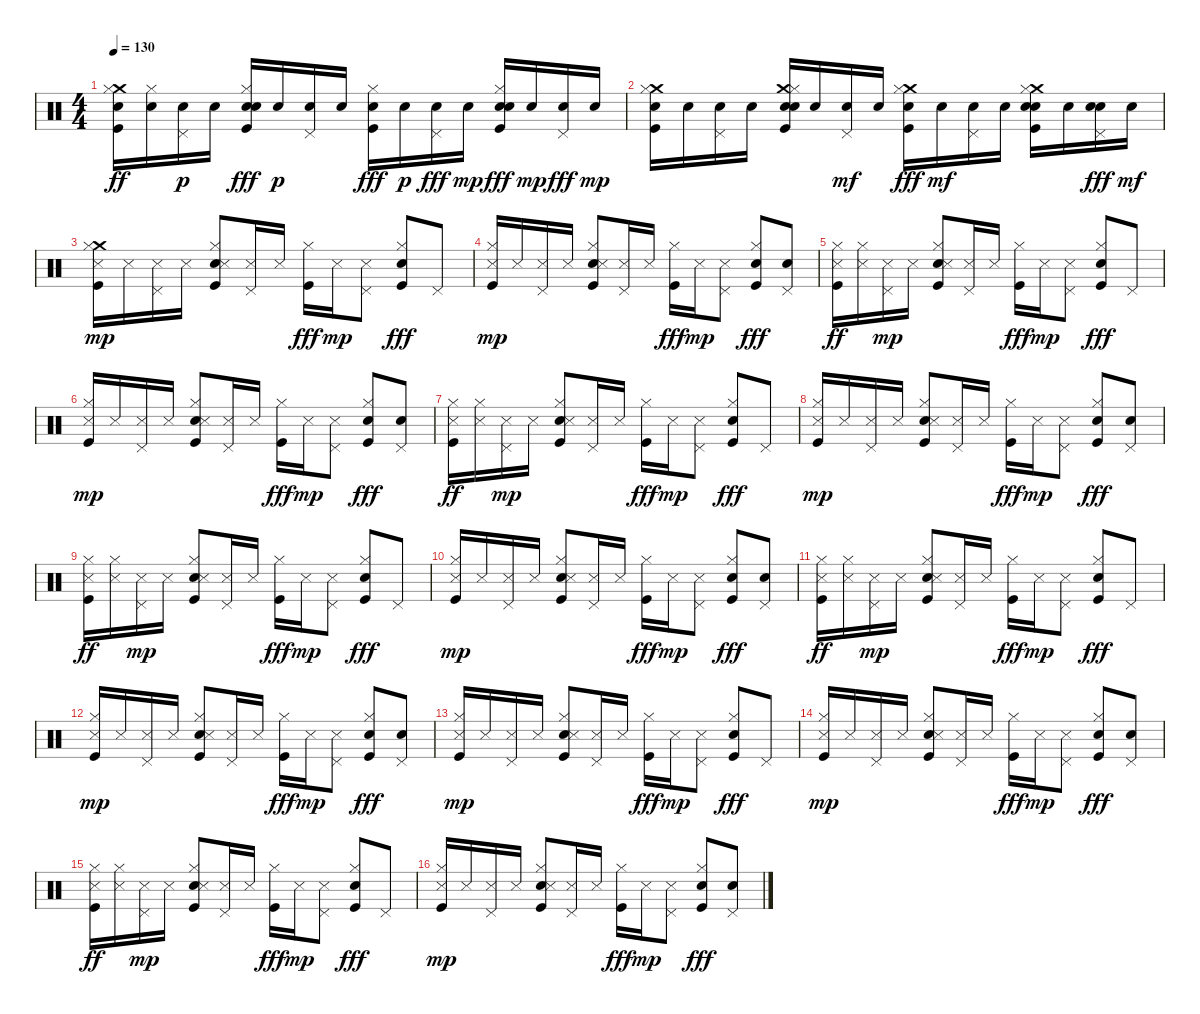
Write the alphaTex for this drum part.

\track "" {instrument percussion}
\staff {score}
\articulation defaults
\ts (4 4)
\tempo 130
\clef neutral
\ks c
("Electric Snare (hit)" "Crash medium (hit)" "Kick (hit)" "Hi-Hat (closed)").16{dy ff} ("Electric Snare (hit)" "Hi-Hat (closed)").16 ("Pedal Hi-Hat (hit)" "Electric Snare (hit)").16{dy p} "Electric Snare (hit)".16 ("Hand Clap (hit)" "Electric Snare (hit)" "Kick (hit)" "Hi-Hat (closed)").16{dy fff} "Electric Snare (hit)".16{dy p} ("Pedal Hi-Hat (hit)" "Electric Snare (hit)").16 "Electric Snare (hit)".16 ("Electric Snare (hit)" "Kick (hit)" "Hi-Hat (closed)").16{dy fff} "Electric Snare (hit)".16{dy p} ("Electric Snare (hit)" "Pedal Hi-Hat (hit)").16{dy fff} "Electric Snare (hit)".16{dy mp} ("Hand Clap (hit)" "Electric Snare (hit)" "Kick (hit)" "Hi-Hat (closed)").16{dy fff} "Electric Snare (hit)".16{dy mp} ("Electric Snare (hit)" "Pedal Hi-Hat (hit)").16{dy fff} "Electric Snare (hit)".16{dy mp} |
("Kick (hit)" "Electric Snare (hit)" "Crash medium (hit)" "Hi-Hat (closed)").16 "Electric Snare (hit)".16 ("Pedal Hi-Hat (hit)" "Electric Snare (hit)").16 "Electric Snare (hit)".16 ("Hand Clap (hit)" "Crash medium (hit)" "Kick (hit)" "Electric Snare (hit)" "Hi-Hat (closed)").16 "Electric Snare (hit)".16 ("Pedal Hi-Hat (hit)" "Electric Snare (hit)").16{dy mf} "Electric Snare (hit)".16 ("Crash medium (hit)" "Electric Snare (hit)" "Kick (hit)" "Hi-Hat (closed)").16{dy fff} "Electric Snare (hit)".16{dy mf} ("Pedal Hi-Hat (hit)" "Electric Snare (hit)").16 "Electric Snare (hit)".16 ("Hand Clap (hit)" "Crash medium (hit)" "Kick (hit)" "Electric Snare (hit)" "Hi-Hat (closed)").16 "Electric Snare (hit)".16 ("Hand Clap (hit)" "Electric Snare (hit)" "Pedal Hi-Hat (hit)").16{dy fff} "Electric Snare (hit)".16{dy mf} |
("Kick (hit)" "Crash medium (hit)" "Snare (side stick) 3" "Hi-Hat (closed)").16{dy mp} "Snare (side stick) 3".16 ("Pedal Hi-Hat (hit)" "Snare (side stick) 3").16 "Snare (side stick) 3".16 ("Hand Clap (hit)" "Kick (hit)" "Snare (side stick) 3" "Hi-Hat (closed)").8 ("Pedal Hi-Hat (hit)" "Snare (side stick) 3").16 "Snare (side stick) 3".16 ("Kick (hit)" "Hi-Hat (closed)").16{dy fff} "Snare (side stick) 3".16{dy mp} ("Pedal Hi-Hat (hit)" "Snare (side stick) 3").8 ("Hand Clap (hit)" "Kick (hit)" "Hi-Hat (closed)").8{dy fff} "Pedal Hi-Hat (hit)".8 |
("Kick (hit)" "Snare (side stick) 3" "Hi-Hat (closed)").16{dy mp} "Snare (side stick) 3".16 ("Pedal Hi-Hat (hit)" "Snare (side stick) 3").16 "Snare (side stick) 3".16 ("Hand Clap (hit)" "Kick (hit)" "Snare (side stick) 3" "Hi-Hat (closed)").8 ("Pedal Hi-Hat (hit)" "Snare (side stick) 3").16 "Snare (side stick) 3".16 ("Kick (hit)" "Hi-Hat (closed)").16{dy fff} "Snare (side stick) 3".16{dy mp} ("Pedal Hi-Hat (hit)" "Snare (side stick) 3").8 ("Hand Clap (hit)" "Kick (hit)" "Hi-Hat (closed)").8{dy fff} ("Hand Clap (hit)" "Pedal Hi-Hat (hit)").8 |
("Kick (hit)" "Snare (side stick) 3" "Hi-Hat (closed)").16{dy ff} ("Snare (side stick) 3" "Hi-Hat (closed)").16 ("Pedal Hi-Hat (hit)" "Snare (side stick) 3").16{dy mp} "Snare (side stick) 3".16 ("Hand Clap (hit)" "Kick (hit)" "Snare (side stick) 3" "Hi-Hat (closed)").8 ("Pedal Hi-Hat (hit)" "Snare (side stick) 3").16 "Snare (side stick) 3".16 ("Kick (hit)" "Hi-Hat (closed)").16{dy fff} "Snare (side stick) 3".16{dy mp} ("Pedal Hi-Hat (hit)" "Snare (side stick) 3").8 ("Hand Clap (hit)" "Kick (hit)" "Hi-Hat (closed)").8{dy fff} "Pedal Hi-Hat (hit)".8 |
("Kick (hit)" "Snare (side stick) 3" "Hi-Hat (closed)").16{dy mp} "Snare (side stick) 3".16 ("Pedal Hi-Hat (hit)" "Snare (side stick) 3").16 "Snare (side stick) 3".16 ("Hand Clap (hit)" "Kick (hit)" "Snare (side stick) 3" "Hi-Hat (closed)").8 ("Pedal Hi-Hat (hit)" "Snare (side stick) 3").16 "Snare (side stick) 3".16 ("Kick (hit)" "Hi-Hat (closed)").16{dy fff} "Snare (side stick) 3".16{dy mp} ("Pedal Hi-Hat (hit)" "Snare (side stick) 3").8 ("Hand Clap (hit)" "Kick (hit)" "Hi-Hat (closed)").8{dy fff} ("Hand Clap (hit)" "Pedal Hi-Hat (hit)").8 |
("Kick (hit)" "Snare (side stick) 3" "Hi-Hat (closed)").16{dy ff} ("Snare (side stick) 3" "Hi-Hat (closed)").16 ("Pedal Hi-Hat (hit)" "Snare (side stick) 3").16{dy mp} "Snare (side stick) 3".16 ("Hand Clap (hit)" "Kick (hit)" "Snare (side stick) 3" "Hi-Hat (closed)").8 ("Pedal Hi-Hat (hit)" "Snare (side stick) 3").16 "Snare (side stick) 3".16 ("Kick (hit)" "Hi-Hat (closed)").16{dy fff} "Snare (side stick) 3".16{dy mp} ("Pedal Hi-Hat (hit)" "Snare (side stick) 3").8 ("Hand Clap (hit)" "Kick (hit)" "Hi-Hat (closed)").8{dy fff} "Pedal Hi-Hat (hit)".8 |
("Kick (hit)" "Snare (side stick) 3" "Hi-Hat (closed)").16{dy mp} "Snare (side stick) 3".16 ("Pedal Hi-Hat (hit)" "Snare (side stick) 3").16 "Snare (side stick) 3".16 ("Hand Clap (hit)" "Kick (hit)" "Snare (side stick) 3" "Hi-Hat (closed)").8 ("Pedal Hi-Hat (hit)" "Snare (side stick) 3").16 "Snare (side stick) 3".16 ("Kick (hit)" "Hi-Hat (closed)").16{dy fff} "Snare (side stick) 3".16{dy mp} ("Pedal Hi-Hat (hit)" "Snare (side stick) 3").8 ("Hand Clap (hit)" "Kick (hit)" "Hi-Hat (closed)").8{dy fff} ("Hand Clap (hit)" "Pedal Hi-Hat (hit)").8 |
("Kick (hit)" "Snare (side stick) 3" "Hi-Hat (closed)").16{dy ff} ("Snare (side stick) 3" "Hi-Hat (closed)").16 ("Pedal Hi-Hat (hit)" "Snare (side stick) 3").16{dy mp} "Snare (side stick) 3".16 ("Hand Clap (hit)" "Kick (hit)" "Snare (side stick) 3" "Hi-Hat (closed)").8 ("Pedal Hi-Hat (hit)" "Snare (side stick) 3").16 "Snare (side stick) 3".16 ("Kick (hit)" "Hi-Hat (closed)").16{dy fff} "Snare (side stick) 3".16{dy mp} ("Pedal Hi-Hat (hit)" "Snare (side stick) 3").8 ("Hand Clap (hit)" "Kick (hit)" "Hi-Hat (closed)").8{dy fff} "Pedal Hi-Hat (hit)".8 |
("Kick (hit)" "Snare (side stick) 3" "Hi-Hat (closed)").16{dy mp} "Snare (side stick) 3".16 ("Pedal Hi-Hat (hit)" "Snare (side stick) 3").16 "Snare (side stick) 3".16 ("Hand Clap (hit)" "Kick (hit)" "Snare (side stick) 3" "Hi-Hat (closed)").8 ("Pedal Hi-Hat (hit)" "Snare (side stick) 3").16 "Snare (side stick) 3".16 ("Kick (hit)" "Hi-Hat (closed)").16{dy fff} "Snare (side stick) 3".16{dy mp} ("Pedal Hi-Hat (hit)" "Snare (side stick) 3").8 ("Hand Clap (hit)" "Kick (hit)" "Hi-Hat (closed)").8{dy fff} ("Hand Clap (hit)" "Pedal Hi-Hat (hit)").8 |
("Kick (hit)" "Snare (side stick) 3" "Hi-Hat (closed)").16{dy ff} ("Snare (side stick) 3" "Hi-Hat (closed)").16 ("Pedal Hi-Hat (hit)" "Snare (side stick) 3").16{dy mp} "Snare (side stick) 3".16 ("Hand Clap (hit)" "Kick (hit)" "Snare (side stick) 3" "Hi-Hat (closed)").8 ("Pedal Hi-Hat (hit)" "Snare (side stick) 3").16 "Snare (side stick) 3".16 ("Kick (hit)" "Hi-Hat (closed)").16{dy fff} "Snare (side stick) 3".16{dy mp} ("Pedal Hi-Hat (hit)" "Snare (side stick) 3").8 ("Hand Clap (hit)" "Kick (hit)" "Hi-Hat (closed)").8{dy fff} "Pedal Hi-Hat (hit)".8 |
("Kick (hit)" "Snare (side stick) 3" "Hi-Hat (closed)").16{dy mp} "Snare (side stick) 3".16 ("Pedal Hi-Hat (hit)" "Snare (side stick) 3").16 "Snare (side stick) 3".16 ("Hand Clap (hit)" "Kick (hit)" "Snare (side stick) 3" "Hi-Hat (closed)").8 ("Pedal Hi-Hat (hit)" "Snare (side stick) 3").16 "Snare (side stick) 3".16 ("Kick (hit)" "Hi-Hat (closed)").16{dy fff} "Snare (side stick) 3".16{dy mp} ("Pedal Hi-Hat (hit)" "Snare (side stick) 3").8 ("Hand Clap (hit)" "Kick (hit)" "Hi-Hat (closed)").8{dy fff} ("Hand Clap (hit)" "Pedal Hi-Hat (hit)").8 |
("Kick (hit)" "Snare (side stick) 3" "Hi-Hat (closed)").16{dy mp} "Snare (side stick) 3".16 ("Pedal Hi-Hat (hit)" "Snare (side stick) 3").16 "Snare (side stick) 3".16 ("Hand Clap (hit)" "Kick (hit)" "Snare (side stick) 3" "Hi-Hat (closed)").8 ("Pedal Hi-Hat (hit)" "Snare (side stick) 3").16 "Snare (side stick) 3".16 ("Kick (hit)" "Hi-Hat (closed)").16{dy fff} "Snare (side stick) 3".16{dy mp} ("Pedal Hi-Hat (hit)" "Snare (side stick) 3").8 ("Hand Clap (hit)" "Kick (hit)" "Hi-Hat (closed)").8{dy fff} "Pedal Hi-Hat (hit)".8 |
("Kick (hit)" "Snare (side stick) 3" "Hi-Hat (closed)").16{dy mp} "Snare (side stick) 3".16 ("Pedal Hi-Hat (hit)" "Snare (side stick) 3").16 "Snare (side stick) 3".16 ("Hand Clap (hit)" "Kick (hit)" "Snare (side stick) 3" "Hi-Hat (closed)").8 ("Pedal Hi-Hat (hit)" "Snare (side stick) 3").16 "Snare (side stick) 3".16 ("Kick (hit)" "Hi-Hat (closed)").16{dy fff} "Snare (side stick) 3".16{dy mp} ("Pedal Hi-Hat (hit)" "Snare (side stick) 3").8 ("Hand Clap (hit)" "Kick (hit)" "Hi-Hat (closed)").8{dy fff} ("Hand Clap (hit)" "Pedal Hi-Hat (hit)").8 |
("Kick (hit)" "Snare (side stick) 3" "Hi-Hat (closed)").16{dy ff} ("Snare (side stick) 3" "Hi-Hat (closed)").16 ("Pedal Hi-Hat (hit)" "Snare (side stick) 3").16{dy mp} "Snare (side stick) 3".16 ("Hand Clap (hit)" "Kick (hit)" "Snare (side stick) 3" "Hi-Hat (closed)").8 ("Pedal Hi-Hat (hit)" "Snare (side stick) 3").16 "Snare (side stick) 3".16 ("Kick (hit)" "Hi-Hat (closed)").16{dy fff} "Snare (side stick) 3".16{dy mp} ("Pedal Hi-Hat (hit)" "Snare (side stick) 3").8 ("Hand Clap (hit)" "Kick (hit)" "Hi-Hat (closed)").8{dy fff} "Pedal Hi-Hat (hit)".8 |
("Kick (hit)" "Snare (side stick) 3" "Hi-Hat (closed)").16{dy mp} "Snare (side stick) 3".16 ("Pedal Hi-Hat (hit)" "Snare (side stick) 3").16 "Snare (side stick) 3".16 ("Hand Clap (hit)" "Kick (hit)" "Snare (side stick) 3" "Hi-Hat (closed)").8 ("Pedal Hi-Hat (hit)" "Snare (side stick) 3").16 "Snare (side stick) 3".16 ("Kick (hit)" "Hi-Hat (closed)").16{dy fff} "Snare (side stick) 3".16{dy mp} ("Pedal Hi-Hat (hit)" "Snare (side stick) 3").8 ("Hand Clap (hit)" "Kick (hit)" "Hi-Hat (closed)").8{dy fff} ("Hand Clap (hit)" "Pedal Hi-Hat (hit)").8
